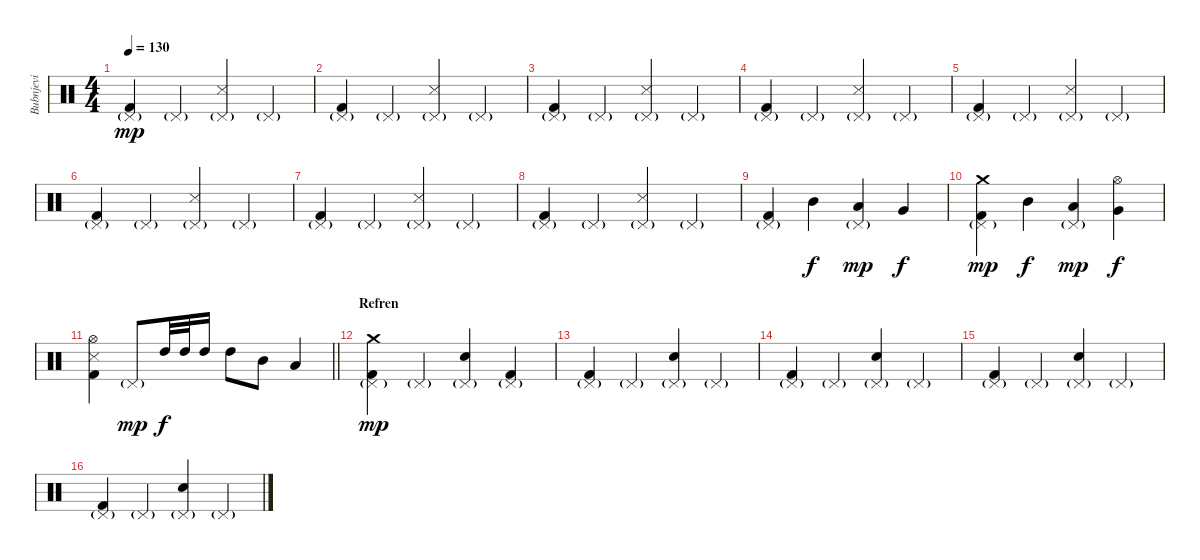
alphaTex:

\track ("Bubnjevi" "Bubnjevi") {instrument percussion}
\staff {score}
\articulation defaults
\ts (4 4)
\tempo 130
\clef neutral
\ks c
("Pedal Hi-Hat (hit)"{g} "Kick (hit) 2").4{dy mp} "Pedal Hi-Hat (hit)"{g}.4 ("Pedal Hi-Hat (hit)"{g} "Snare (side stick) 3").4 "Pedal Hi-Hat (hit)"{g}.4 |
("Pedal Hi-Hat (hit)"{g} "Kick (hit) 2").4 "Pedal Hi-Hat (hit)"{g}.4 ("Pedal Hi-Hat (hit)"{g} "Snare (side stick) 3").4 "Pedal Hi-Hat (hit)"{g}.4 |
("Pedal Hi-Hat (hit)"{g} "Kick (hit) 2").4 "Pedal Hi-Hat (hit)"{g}.4 ("Pedal Hi-Hat (hit)"{g} "Snare (side stick) 3").4 "Pedal Hi-Hat (hit)"{g}.4 |
("Pedal Hi-Hat (hit)"{g} "Kick (hit) 2").4 "Pedal Hi-Hat (hit)"{g}.4 ("Pedal Hi-Hat (hit)"{g} "Snare (side stick) 3").4 "Pedal Hi-Hat (hit)"{g}.4 |
("Pedal Hi-Hat (hit)"{g} "Kick (hit) 2").4 "Pedal Hi-Hat (hit)"{g}.4 ("Pedal Hi-Hat (hit)"{g} "Snare (side stick) 3").4 "Pedal Hi-Hat (hit)"{g}.4 |
("Pedal Hi-Hat (hit)"{g} "Kick (hit) 2").4 "Pedal Hi-Hat (hit)"{g}.4 ("Pedal Hi-Hat (hit)"{g} "Snare (side stick) 3").4 "Pedal Hi-Hat (hit)"{g}.4 |
("Pedal Hi-Hat (hit)"{g} "Kick (hit) 2").4 "Pedal Hi-Hat (hit)"{g}.4 ("Pedal Hi-Hat (hit)"{g} "Snare (side stick) 3").4 "Pedal Hi-Hat (hit)"{g}.4 |
("Pedal Hi-Hat (hit)"{g} "Kick (hit) 2").4 "Pedal Hi-Hat (hit)"{g}.4 ("Pedal Hi-Hat (hit)"{g} "Snare (side stick) 3").4 "Pedal Hi-Hat (hit)"{g}.4 |
("Pedal Hi-Hat (hit)"{g} "Kick (hit) 2").4 "Mid Tom (hit)".4{dy f} ("Pedal Hi-Hat (hit)"{g} "Low Tom (hit)").4{dy mp} "Very Low Tom (hit)".4{dy f} |
("Crash medium (hit)" "Pedal Hi-Hat (hit)"{g} "Kick (hit) 2").4{dy mp} "Mid Tom (hit)".4{dy f} ("Pedal Hi-Hat (hit)"{g} "Low Tom (hit)").4{dy mp} ("Hi-Hat (open)" "Very Low Tom (hit)").4{dy f} |
\barLineRight lightlight
("Hi-Hat (open)" "Snare (side stick) 3" "Kick (hit) 2").4 "Pedal Hi-Hat (hit)"{g}.8{dy mp} "High Tom (hit)".32{dy f} "High Tom (hit)".32 "High Tom (hit)".16 "High Tom (hit)".8 "Mid Tom (hit)".8 "Low Tom (hit)".4 |
\section ("" "Refren")
("Crash medium (hit)" "Pedal Hi-Hat (hit)"{g} "Kick (hit) 2").4{dy mp} "Pedal Hi-Hat (hit)"{g}.4 ("Pedal Hi-Hat (hit)"{g} "Electric Snare (hit)").4 ("Pedal Hi-Hat (hit)"{g} "Kick (hit) 2").4 |
("Pedal Hi-Hat (hit)"{g} "Kick (hit) 2").4 "Pedal Hi-Hat (hit)"{g}.4 ("Pedal Hi-Hat (hit)"{g} "Electric Snare (hit)").4 "Pedal Hi-Hat (hit)"{g}.4 |
("Pedal Hi-Hat (hit)"{g} "Kick (hit) 2").4 "Pedal Hi-Hat (hit)"{g}.4 ("Pedal Hi-Hat (hit)"{g} "Electric Snare (hit)").4 "Pedal Hi-Hat (hit)"{g}.4 |
("Pedal Hi-Hat (hit)"{g} "Kick (hit) 2").4 "Pedal Hi-Hat (hit)"{g}.4 ("Pedal Hi-Hat (hit)"{g} "Electric Snare (hit)").4 "Pedal Hi-Hat (hit)"{g}.4 |
("Pedal Hi-Hat (hit)"{g} "Kick (hit) 2").4 "Pedal Hi-Hat (hit)"{g}.4 ("Pedal Hi-Hat (hit)"{g} "Electric Snare (hit)").4 "Pedal Hi-Hat (hit)"{g}.4
